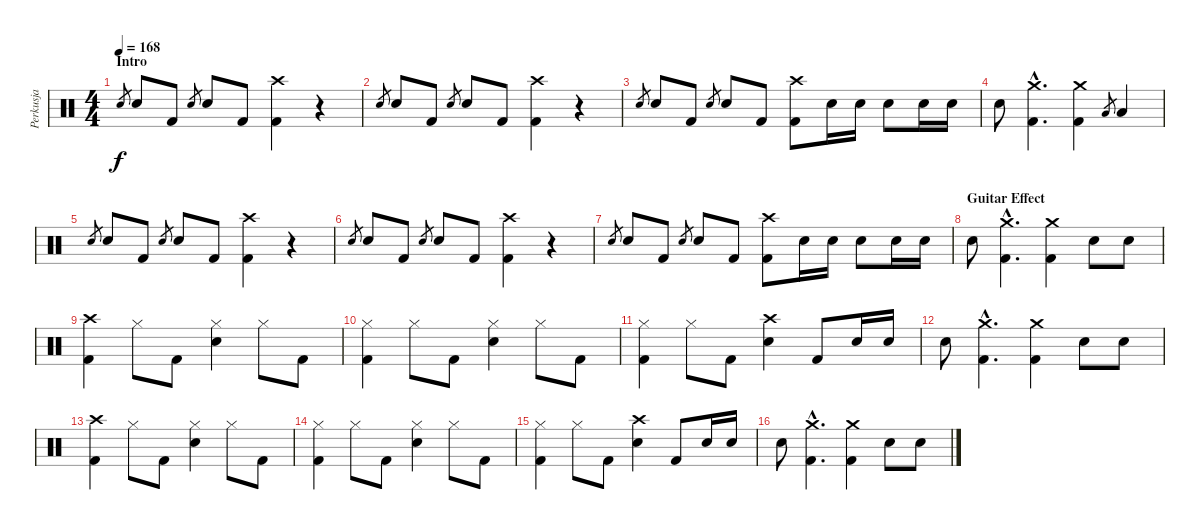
\track ("Perkusja" "Perkusja") {instrument percussion}
\staff {score}
\articulation defaults
\ts (4 4)
\section ("" "Intro")
\tempo 168
\clef neutral
\ks c "Snare (hit) 2".8{gr dy f} "Snare (hit) 2".8 "Kick (hit) 2".8 "Snare (hit) 2".8{gr} "Snare (hit) 2".8 "Kick (hit) 2".8
("Kick (hit) 2" "Crash high (hit)").4 r.4 |
"Snare (hit) 2".8{gr} "Snare (hit) 2".8 "Kick (hit) 2".8 "Snare (hit) 2".8{gr} "Snare (hit) 2".8 "Kick (hit) 2".8 ("Kick (hit) 2" "Crash high (hit)").4 r.4 |
"Snare (hit) 2".8{gr} "Snare (hit) 2".8 "Kick (hit) 2".8 "Snare (hit) 2".8{gr} "Snare (hit) 2".8 "Kick (hit) 2".8 ("Kick (hit) 2" "Crash high (hit)").8 "Snare (hit) 2".16 "Snare (hit) 2".16 "Snare (hit) 2".8 "Snare (hit) 2".16 "Snare (hit) 2".16 |
"Snare (hit) 2".8 ("Crash medium (hit)"{hac} "Kick (hit) 2"{hac}).4{d} ("Crash medium (hit)" "Kick (hit) 2").4 "Low Tom (hit)".8{gr} "Low Tom (hit)".4 |
"Snare (hit) 2".8{gr} "Snare (hit) 2".8 "Kick (hit) 2".8 "Snare (hit) 2".8{gr} "Snare (hit) 2".8 "Kick (hit) 2".8 ("Kick (hit) 2" "Crash high (hit)").4 r.4 |
"Snare (hit) 2".8{gr} "Snare (hit) 2".8 "Kick (hit) 2".8 "Snare (hit) 2".8{gr} "Snare (hit) 2".8 "Kick (hit) 2".8 ("Kick (hit) 2" "Crash high (hit)").4 r.4 |
"Snare (hit) 2".8{gr} "Snare (hit) 2".8 "Kick (hit) 2".8 "Snare (hit) 2".8{gr} "Snare (hit) 2".8 "Kick (hit) 2".8 ("Kick (hit) 2" "Crash high (hit)").8 "Snare (hit) 2".16 "Snare (hit) 2".16 "Snare (hit) 2".8 "Snare (hit) 2".16 "Snare (hit) 2".16 |
\section ("" "Guitar Effect")
"Snare (hit) 2".8 ("Crash medium (hit)"{hac} "Kick (hit) 2"{hac}).4{d} ("Crash medium (hit)" "Kick (hit) 2").4 "Snare (hit) 2".8 "Snare (hit) 2".8 |
("Crash high (hit)" "Kick (hit) 2").4 "Hi-Hat (closed)".8 "Kick (hit) 2".8 ("Hi-Hat (closed)" "Snare (hit) 2").4 "Hi-Hat (closed)".8 "Kick (hit) 2".8 |
("Hi-Hat (closed)" "Kick (hit) 2").4 "Hi-Hat (closed)".8 "Kick (hit) 2".8 ("Hi-Hat (closed)" "Snare (hit) 2").4 "Hi-Hat (closed)".8 "Kick (hit) 2".8 |
("Hi-Hat (closed)" "Kick (hit) 2").4 "Hi-Hat (closed)".8 "Kick (hit) 2".8 ("Crash high (hit)" "Snare (hit) 2").4 "Kick (hit) 2".8 "Snare (hit) 2".16 "Snare (hit) 2".16 |
"Snare (hit) 2".8 ("Crash medium (hit)"{hac} "Kick (hit) 2"{hac}).4{d} ("Crash medium (hit)" "Kick (hit) 2").4 "Snare (hit) 2".8 "Snare (hit) 2".8 |
("Crash high (hit)" "Kick (hit) 2").4 "Hi-Hat (closed)".8 "Kick (hit) 2".8 ("Hi-Hat (closed)" "Snare (hit) 2").4 "Hi-Hat (closed)".8 "Kick (hit) 2".8 |
("Hi-Hat (closed)" "Kick (hit) 2").4 "Hi-Hat (closed)".8 "Kick (hit) 2".8 ("Hi-Hat (closed)" "Snare (hit) 2").4 "Hi-Hat (closed)".8 "Kick (hit) 2".8 |
("Hi-Hat (closed)" "Kick (hit) 2").4 "Hi-Hat (closed)".8 "Kick (hit) 2".8 ("Crash high (hit)" "Snare (hit) 2").4 "Kick (hit) 2".8 "Snare (hit) 2".16 "Snare (hit) 2".16 |
"Snare (hit) 2".8 ("Crash medium (hit)"{hac} "Kick (hit) 2"{hac}).4{d} ("Crash medium (hit)" "Kick (hit) 2").4 "Snare (hit) 2".8 "Snare (hit) 2".8
